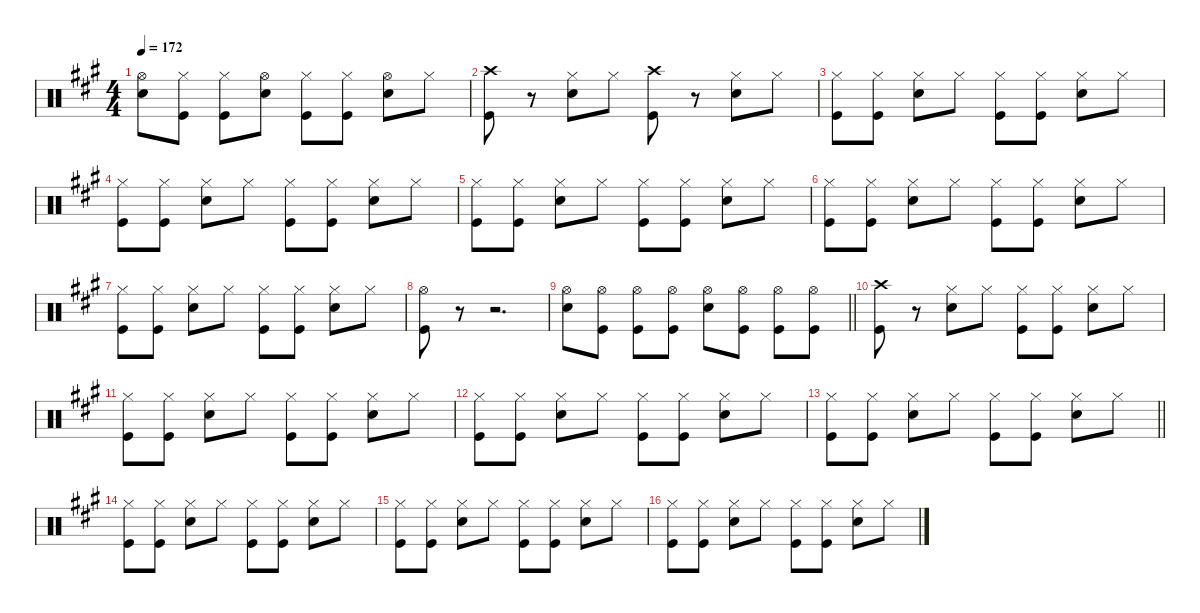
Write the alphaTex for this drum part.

\defaultSystemsLayout 4
\hideDynamics
\bracketExtendMode nobrackets
\singleTrackTrackNamePolicy hidden
\multiTrackTrackNamePolicy hidden
\firstSystemTrackNameMode fullname
\firstSystemTrackNameOrientation horizontal
\otherSystemsTrackNameOrientation horizontal
\track ("Percussion" "drm.") {instrument percussion}
\staff {score}
\articulation defaults
\ts (4 4)
\tempo 172
\clef neutral
\ks a
("Hi-Hat (open)"{acc forcenatural} "Snare (hit) 2"{acc forcenatural}).8{dy f beam Down} ("Hi-Hat (closed)"{acc forcenatural} "Kick (hit)"{acc forcenatural}).8{beam Down} ("Hi-Hat (closed)"{acc forcenatural} "Kick (hit)"{acc forcenatural}).8{beam Down} ("Hi-Hat (open)"{acc forcenatural} "Snare (hit) 2"{acc forcenatural}).8{beam Down} ("Hi-Hat (closed)"{acc forcenatural} "Kick (hit)"{acc forcenatural}).8{beam Down} ("Hi-Hat (closed)"{acc forcenatural} "Kick (hit)"{acc forcenatural}).8{beam Down} ("Hi-Hat (open)"{acc forcenatural} "Snare (hit) 2"{acc forcenatural}).8{beam Down} "Hi-Hat (closed)"{acc forcenatural}.8{beam Down} |
("Crash high (hit)"{acc forcenatural} "Kick (hit)"{acc forcenatural}).8{beam Down} r.8{beam Down} ("Hi-Hat (closed)"{acc forcenatural} "Snare (hit) 2"{acc forcenatural}).8{beam Down} "Hi-Hat (closed)"{acc forcenatural}.8{beam Down} ("Crash high (hit)"{acc forcenatural} "Kick (hit)"{acc forcenatural}).8{beam Down} r.8{beam Down} ("Hi-Hat (closed)"{acc forcenatural} "Snare (hit) 2"{acc forcenatural}).8{beam Down} "Hi-Hat (closed)"{acc forcenatural}.8{beam Down} |
("Hi-Hat (closed)"{acc forcenatural} "Kick (hit)"{acc forcenatural}).8{beam Down} ("Hi-Hat (closed)"{acc forcenatural} "Kick (hit)"{acc forcenatural}).8{beam Down} ("Hi-Hat (closed)"{acc forcenatural} "Snare (hit) 2"{acc forcenatural}).8{beam Down} "Hi-Hat (closed)"{acc forcenatural}.8{beam Down} ("Hi-Hat (closed)"{acc forcenatural} "Kick (hit)"{acc forcenatural}).8{beam Down} ("Hi-Hat (closed)"{acc forcenatural} "Kick (hit)"{acc forcenatural}).8{beam Down} ("Hi-Hat (closed)"{acc forcenatural} "Snare (hit) 2"{acc forcenatural}).8{beam Down} "Hi-Hat (closed)"{acc forcenatural}.8{beam Down} |
("Hi-Hat (closed)"{acc forcenatural} "Kick (hit)"{acc forcenatural}).8{beam Down} ("Hi-Hat (closed)"{acc forcenatural} "Kick (hit)"{acc forcenatural}).8{beam Down} ("Hi-Hat (closed)"{acc forcenatural} "Snare (hit) 2"{acc forcenatural}).8{beam Down} "Hi-Hat (closed)"{acc forcenatural}.8{beam Down} ("Hi-Hat (closed)"{acc forcenatural} "Kick (hit)"{acc forcenatural}).8{beam Down} ("Hi-Hat (closed)"{acc forcenatural} "Kick (hit)"{acc forcenatural}).8{beam Down} ("Hi-Hat (closed)"{acc forcenatural} "Snare (hit) 2"{acc forcenatural}).8{beam Down} "Hi-Hat (closed)"{acc forcenatural}.8{beam Down} |
("Hi-Hat (closed)"{acc forcenatural} "Kick (hit)"{acc forcenatural}).8{beam Down} ("Hi-Hat (closed)"{acc forcenatural} "Kick (hit)"{acc forcenatural}).8{beam Down} ("Hi-Hat (closed)"{acc forcenatural} "Snare (hit) 2"{acc forcenatural}).8{beam Down} "Hi-Hat (closed)"{acc forcenatural}.8{beam Down} ("Hi-Hat (closed)"{acc forcenatural} "Kick (hit)"{acc forcenatural}).8{beam Down} ("Hi-Hat (closed)"{acc forcenatural} "Kick (hit)"{acc forcenatural}).8{beam Down} ("Hi-Hat (closed)"{acc forcenatural} "Snare (hit) 2"{acc forcenatural}).8{beam Down} "Hi-Hat (closed)"{acc forcenatural}.8{beam Down} |
("Hi-Hat (closed)"{acc forcenatural} "Kick (hit)"{acc forcenatural}).8{beam Down} ("Hi-Hat (closed)"{acc forcenatural} "Kick (hit)"{acc forcenatural}).8{beam Down} ("Hi-Hat (closed)"{acc forcenatural} "Snare (hit) 2"{acc forcenatural}).8{beam Down} "Hi-Hat (closed)"{acc forcenatural}.8{beam Down} ("Hi-Hat (closed)"{acc forcenatural} "Kick (hit)"{acc forcenatural}).8{beam Down} ("Hi-Hat (closed)"{acc forcenatural} "Kick (hit)"{acc forcenatural}).8{beam Down} ("Hi-Hat (closed)"{acc forcenatural} "Snare (hit) 2"{acc forcenatural}).8{beam Down} "Hi-Hat (closed)"{acc forcenatural}.8{beam Down} |
("Hi-Hat (closed)"{acc forcenatural} "Kick (hit)"{acc forcenatural}).8{beam Down} ("Hi-Hat (closed)"{acc forcenatural} "Kick (hit)"{acc forcenatural}).8{beam Down} ("Hi-Hat (closed)"{acc forcenatural} "Snare (hit) 2"{acc forcenatural}).8{beam Down} "Hi-Hat (closed)"{acc forcenatural}.8{beam Down} ("Hi-Hat (closed)"{acc forcenatural} "Kick (hit)"{acc forcenatural}).8{beam Down} ("Hi-Hat (closed)"{acc forcenatural} "Kick (hit)"{acc forcenatural}).8{beam Down} ("Hi-Hat (closed)"{acc forcenatural} "Snare (hit) 2"{acc forcenatural}).8{beam Down} "Hi-Hat (closed)"{acc forcenatural}.8{beam Down} |
("Hi-Hat (open)"{acc forcenatural} "Kick (hit)"{acc forcenatural}).8{beam Down} r.8{beam Down} r.2{d beam Down} |
\barLineRight lightlight
("Hi-Hat (open)"{acc forcenatural} "Snare (hit) 2"{acc forcenatural}).8{beam Down} ("Hi-Hat (open)"{acc forcenatural} "Kick (hit)"{acc forcenatural}).8{beam Down} ("Hi-Hat (open)"{acc forcenatural} "Kick (hit)"{acc forcenatural}).8{beam Down} ("Hi-Hat (open)"{acc forcenatural} "Kick (hit)"{acc forcenatural}).8{beam Down} ("Hi-Hat (open)"{acc forcenatural} "Snare (hit) 2"{acc forcenatural}).8{beam Down} ("Hi-Hat (open)"{acc forcenatural} "Kick (hit)"{acc forcenatural}).8{beam Down} ("Hi-Hat (open)"{acc forcenatural} "Kick (hit)"{acc forcenatural}).8{beam Down} ("Hi-Hat (open)"{acc forcenatural} "Kick (hit)"{acc forcenatural}).8{beam Down} |
("Crash high (hit)"{acc forcenatural} "Kick (hit)"{acc forcenatural}).8{beam Down} r.8{beam Down} ("Hi-Hat (closed)"{acc forcenatural} "Snare (hit) 2"{acc forcenatural}).8{beam Down} "Hi-Hat (closed)"{acc forcenatural}.8{beam Down} ("Hi-Hat (closed)"{acc forcenatural} "Kick (hit)"{acc forcenatural}).8{beam Down} ("Hi-Hat (closed)"{acc forcenatural} "Kick (hit)"{acc forcenatural}).8{beam Down} ("Hi-Hat (closed)"{acc forcenatural} "Snare (hit) 2"{acc forcenatural}).8{beam Down} "Hi-Hat (closed)"{acc forcenatural}.8{beam Down} |
("Hi-Hat (closed)"{acc forcenatural} "Kick (hit)"{acc forcenatural}).8{beam Down} ("Hi-Hat (closed)"{acc forcenatural} "Kick (hit)"{acc forcenatural}).8{beam Down} ("Hi-Hat (closed)"{acc forcenatural} "Snare (hit) 2"{acc forcenatural}).8{beam Down} "Hi-Hat (closed)"{acc forcenatural}.8{beam Down} ("Hi-Hat (closed)"{acc forcenatural} "Kick (hit)"{acc forcenatural}).8{beam Down} ("Hi-Hat (closed)"{acc forcenatural} "Kick (hit)"{acc forcenatural}).8{beam Down} ("Hi-Hat (closed)"{acc forcenatural} "Snare (hit) 2"{acc forcenatural}).8{beam Down} "Hi-Hat (closed)"{acc forcenatural}.8{beam Down} |
("Hi-Hat (closed)"{acc forcenatural} "Kick (hit)"{acc forcenatural}).8{beam Down} ("Hi-Hat (closed)"{acc forcenatural} "Kick (hit)"{acc forcenatural}).8{beam Down} ("Hi-Hat (closed)"{acc forcenatural} "Snare (hit) 2"{acc forcenatural}).8{beam Down} "Hi-Hat (closed)"{acc forcenatural}.8{beam Down} ("Hi-Hat (closed)"{acc forcenatural} "Kick (hit)"{acc forcenatural}).8{beam Down} ("Hi-Hat (closed)"{acc forcenatural} "Kick (hit)"{acc forcenatural}).8{beam Down} ("Hi-Hat (closed)"{acc forcenatural} "Snare (hit) 2"{acc forcenatural}).8{beam Down} "Hi-Hat (closed)"{acc forcenatural}.8{beam Down} |
\barLineRight lightlight
("Hi-Hat (closed)"{acc forcenatural} "Kick (hit)"{acc forcenatural}).8{beam Down} ("Hi-Hat (closed)"{acc forcenatural} "Kick (hit)"{acc forcenatural}).8{beam Down} ("Hi-Hat (closed)"{acc forcenatural} "Snare (hit) 2"{acc forcenatural}).8{beam Down} "Hi-Hat (closed)"{acc forcenatural}.8{beam Down} ("Hi-Hat (closed)"{acc forcenatural} "Kick (hit)"{acc forcenatural}).8{beam Down} ("Hi-Hat (closed)"{acc forcenatural} "Kick (hit)"{acc forcenatural}).8{beam Down} ("Hi-Hat (closed)"{acc forcenatural} "Snare (hit) 2"{acc forcenatural}).8{beam Down} "Hi-Hat (closed)"{acc forcenatural}.8{beam Down} |
("Hi-Hat (closed)"{acc forcenatural} "Kick (hit)"{acc forcenatural}).8{beam Down} ("Hi-Hat (closed)"{acc forcenatural} "Kick (hit)"{acc forcenatural}).8{beam Down} ("Hi-Hat (closed)"{acc forcenatural} "Snare (hit) 2"{acc forcenatural}).8{beam Down} "Hi-Hat (closed)"{acc forcenatural}.8{beam Down} ("Hi-Hat (closed)"{acc forcenatural} "Kick (hit)"{acc forcenatural}).8{beam Down} ("Hi-Hat (closed)"{acc forcenatural} "Kick (hit)"{acc forcenatural}).8{beam Down} ("Hi-Hat (closed)"{acc forcenatural} "Snare (hit) 2"{acc forcenatural}).8{beam Down} "Hi-Hat (closed)"{acc forcenatural}.8{beam Down} |
("Hi-Hat (closed)"{acc forcenatural} "Kick (hit)"{acc forcenatural}).8{beam Down} ("Hi-Hat (closed)"{acc forcenatural} "Kick (hit)"{acc forcenatural}).8{beam Down} ("Hi-Hat (closed)"{acc forcenatural} "Snare (hit) 2"{acc forcenatural}).8{beam Down} "Hi-Hat (closed)"{acc forcenatural}.8{beam Down} ("Hi-Hat (closed)"{acc forcenatural} "Kick (hit)"{acc forcenatural}).8{beam Down} ("Hi-Hat (closed)"{acc forcenatural} "Kick (hit)"{acc forcenatural}).8{beam Down} ("Hi-Hat (closed)"{acc forcenatural} "Snare (hit) 2"{acc forcenatural}).8{beam Down} "Hi-Hat (closed)"{acc forcenatural}.8{beam Down} |
("Hi-Hat (closed)"{acc forcenatural} "Kick (hit)"{acc forcenatural}).8{beam Down} ("Hi-Hat (closed)"{acc forcenatural} "Kick (hit)"{acc forcenatural}).8{beam Down} ("Hi-Hat (closed)"{acc forcenatural} "Snare (hit) 2"{acc forcenatural}).8{beam Down} "Hi-Hat (closed)"{acc forcenatural}.8{beam Down} ("Hi-Hat (closed)"{acc forcenatural} "Kick (hit)"{acc forcenatural}).8{beam Down} ("Hi-Hat (closed)"{acc forcenatural} "Kick (hit)"{acc forcenatural}).8{beam Down} ("Hi-Hat (closed)"{acc forcenatural} "Snare (hit) 2"{acc forcenatural}).8{beam Down} "Hi-Hat (closed)"{acc forcenatural}.8{beam Down}
